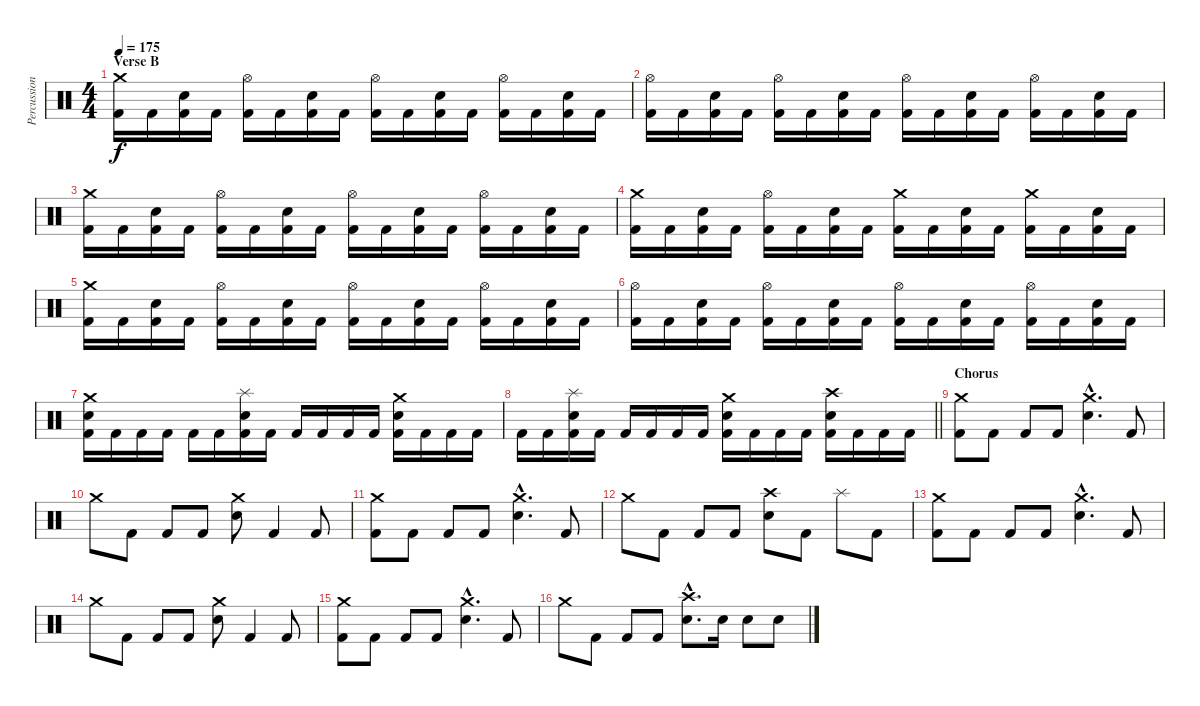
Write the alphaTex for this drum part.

\track ("Percussion" "Percussion") {instrument percussion}
\staff {score}
\articulation defaults
\ts (4 4)
\section ("" "Verse B")
\tempo 175
\clef neutral
\ks c
("Crash medium (hit)" "Kick (hit) 2").16{dy f} "Kick (hit) 2".16 ("Electric Snare (hit)" "Kick (hit) 2").16 "Kick (hit) 2".16 ("Hi-Hat (open)" "Kick (hit) 2").16 "Kick (hit) 2".16 ("Electric Snare (hit)" "Kick (hit) 2").16 "Kick (hit) 2".16 ("Hi-Hat (open)" "Kick (hit) 2").16 "Kick (hit) 2".16 ("Electric Snare (hit)" "Kick (hit) 2").16 "Kick (hit) 2".16 ("Hi-Hat (open)" "Kick (hit) 2").16 "Kick (hit) 2".16 ("Electric Snare (hit)" "Kick (hit) 2").16 "Kick (hit) 2".16 |
("Hi-Hat (open)" "Kick (hit) 2").16 "Kick (hit) 2".16 ("Electric Snare (hit)" "Kick (hit) 2").16 "Kick (hit) 2".16 ("Hi-Hat (open)" "Kick (hit) 2").16 "Kick (hit) 2".16 ("Electric Snare (hit)" "Kick (hit) 2").16 "Kick (hit) 2".16 ("Hi-Hat (open)" "Kick (hit) 2").16 "Kick (hit) 2".16 ("Electric Snare (hit)" "Kick (hit) 2").16 "Kick (hit) 2".16 ("Hi-Hat (open)" "Kick (hit) 2").16 "Kick (hit) 2".16 ("Electric Snare (hit)" "Kick (hit) 2").16 "Kick (hit) 2".16 |
("Crash medium (hit)" "Kick (hit) 2").16 "Kick (hit) 2".16 ("Electric Snare (hit)" "Kick (hit) 2").16 "Kick (hit) 2".16 ("Hi-Hat (open)" "Kick (hit) 2").16 "Kick (hit) 2".16 ("Electric Snare (hit)" "Kick (hit) 2").16 "Kick (hit) 2".16 ("Hi-Hat (open)" "Kick (hit) 2").16 "Kick (hit) 2".16 ("Electric Snare (hit)" "Kick (hit) 2").16 "Kick (hit) 2".16 ("Hi-Hat (open)" "Kick (hit) 2").16 "Kick (hit) 2".16 ("Electric Snare (hit)" "Kick (hit) 2").16 "Kick (hit) 2".16 |
("Crash medium (hit)" "Kick (hit) 2").16 "Kick (hit) 2".16 ("Electric Snare (hit)" "Kick (hit) 2").16 "Kick (hit) 2".16 ("Hi-Hat (open)" "Kick (hit) 2").16 "Kick (hit) 2".16 ("Electric Snare (hit)" "Kick (hit) 2").16 "Kick (hit) 2".16 ("Crash medium (hit)" "Kick (hit) 2").16 "Kick (hit) 2".16 ("Electric Snare (hit)" "Kick (hit) 2").16 "Kick (hit) 2".16 ("Crash medium (hit)" "Kick (hit) 2").16 "Kick (hit) 2".16 ("Electric Snare (hit)" "Kick (hit) 2").16 "Kick (hit) 2".16 |
("Crash medium (hit)" "Kick (hit) 2").16 "Kick (hit) 2".16 ("Electric Snare (hit)" "Kick (hit) 2").16 "Kick (hit) 2".16 ("Hi-Hat (open)" "Kick (hit) 2").16 "Kick (hit) 2".16 ("Electric Snare (hit)" "Kick (hit) 2").16 "Kick (hit) 2".16 ("Hi-Hat (open)" "Kick (hit) 2").16 "Kick (hit) 2".16 ("Electric Snare (hit)" "Kick (hit) 2").16 "Kick (hit) 2".16 ("Hi-Hat (open)" "Kick (hit) 2").16 "Kick (hit) 2".16 ("Electric Snare (hit)" "Kick (hit) 2").16 "Kick (hit) 2".16 |
("Hi-Hat (open)" "Kick (hit) 2").16 "Kick (hit) 2".16 ("Electric Snare (hit)" "Kick (hit) 2").16 "Kick (hit) 2".16 ("Hi-Hat (open)" "Kick (hit) 2").16 "Kick (hit) 2".16 ("Electric Snare (hit)" "Kick (hit) 2").16 "Kick (hit) 2".16 ("Hi-Hat (open)" "Kick (hit) 2").16 "Kick (hit) 2".16 ("Electric Snare (hit)" "Kick (hit) 2").16 "Kick (hit) 2".16 ("Hi-Hat (open)" "Kick (hit) 2").16 "Kick (hit) 2".16 ("Electric Snare (hit)" "Kick (hit) 2").16 "Kick (hit) 2".16 |
("Crash medium (hit)" "Electric Snare (hit)" "Kick (hit) 2").16 "Kick (hit) 2".16 "Kick (hit) 2".16 "Kick (hit) 2".16 "Kick (hit) 2".16 "Kick (hit) 2".16 ("Splash (hit)" "Electric Snare (hit)" "Kick (hit) 2").16 "Kick (hit) 2".16 "Kick (hit) 2".16 "Kick (hit) 2".16 "Kick (hit) 2".16 "Kick (hit) 2".16 ("Crash medium (hit)" "Electric Snare (hit)" "Kick (hit) 2").16 "Kick (hit) 2".16 "Kick (hit) 2".16 "Kick (hit) 2".16 |
\barLineRight lightlight "Kick (hit) 2".16 "Kick (hit) 2".16
("Splash (hit)" "Electric Snare (hit)" "Kick (hit) 2").16 "Kick (hit) 2".16 "Kick (hit) 2".16 "Kick (hit) 2".16 "Kick (hit) 2".16 "Kick (hit) 2".16 ("Crash medium (hit)" "Electric Snare (hit)" "Kick (hit) 2").16 "Kick (hit) 2".16 "Kick (hit) 2".16 "Kick (hit) 2".16 ("Crash high (hit)" "Electric Snare (hit)" "Kick (hit) 2").16 "Kick (hit) 2".16 "Kick (hit) 2".16 "Kick (hit) 2".16 |
\section ("" "Chorus")
("Crash medium (hit)" "Kick (hit) 2").8 "Kick (hit) 2".8 "Kick (hit) 2".8 "Kick (hit) 2".8 ("Crash medium (hit)"{hac} "Electric Snare (hit)"{hac}).4{d} "Kick (hit) 2".8 |
"Crash medium (hit)".8 "Kick (hit) 2".8 "Kick (hit) 2".8 "Kick (hit) 2".8 ("Crash medium (hit)" "Electric Snare (hit)").8 "Kick (hit) 2".4 "Kick (hit) 2".8 |
("Crash medium (hit)" "Kick (hit) 2").8 "Kick (hit) 2".8 "Kick (hit) 2".8 "Kick (hit) 2".8 ("Crash medium (hit)"{hac} "Electric Snare (hit)"{hac}).4{d} "Kick (hit) 2".8 |
"Crash medium (hit)".8 "Kick (hit) 2".8 "Kick (hit) 2".8 "Kick (hit) 2".8 ("Crash high (hit)" "Electric Snare (hit)").8 "Kick (hit) 2".8 "Splash (hit)".8 "Kick (hit) 2".8 |
("Crash medium (hit)" "Kick (hit) 2").8 "Kick (hit) 2".8 "Kick (hit) 2".8 "Kick (hit) 2".8 ("Crash medium (hit)"{hac} "Electric Snare (hit)"{hac}).4{d} "Kick (hit) 2".8 |
"Crash medium (hit)".8 "Kick (hit) 2".8 "Kick (hit) 2".8 "Kick (hit) 2".8 ("Crash medium (hit)" "Electric Snare (hit)").8 "Kick (hit) 2".4 "Kick (hit) 2".8 |
("Crash medium (hit)" "Kick (hit) 2").8 "Kick (hit) 2".8 "Kick (hit) 2".8 "Kick (hit) 2".8 ("Crash medium (hit)"{hac} "Electric Snare (hit)"{hac}).4{d} "Kick (hit) 2".8 |
"Crash medium (hit)".8 "Kick (hit) 2".8 "Kick (hit) 2".8 "Kick (hit) 2".8 ("Crash high (hit)"{hac} "Electric Snare (hit)"{hac}).8{d} "Electric Snare (hit)".16 "Electric Snare (hit)".8 "Electric Snare (hit)".8
